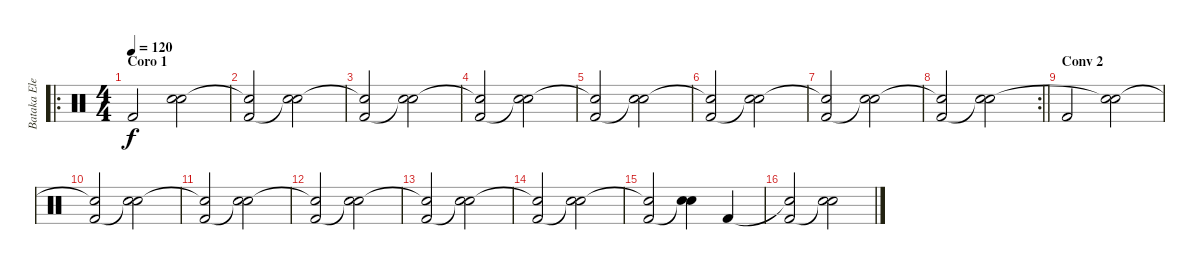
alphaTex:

\track ("Bataka Electrica" "Bataka Ele") {instrument percussion}
\staff {score}
\articulation defaults
\ro
\ts (4 4)
\section ("" "Coro 1")
\tempo 120
\clef neutral
\ks c "Kick (hit) 2".2{dy f}
("Snare (hit) 2" "Snare (hit)"{t}).2 |
("Snare (hit)"{t} "Kick (hit) 2").2 ("Snare (hit) 2" "Snare (hit)"{t}).2 |
("Snare (hit)"{t} "Kick (hit) 2").2 ("Snare (hit) 2" "Snare (hit)"{t}).2 |
("Snare (hit)"{t} "Kick (hit) 2").2 ("Snare (hit) 2" "Snare (hit)"{t}).2 |
("Snare (hit)"{t} "Kick (hit) 2").2 ("Snare (hit) 2" "Snare (hit)"{t}).2 |
("Snare (hit)"{t} "Kick (hit) 2").2 ("Snare (hit) 2" "Snare (hit)"{t}).2 |
("Snare (hit)"{t} "Kick (hit) 2").2 ("Snare (hit) 2" "Snare (hit)"{t}).2 |
\rc 2
\barLineRight lightlight
("Snare (hit)"{t} "Kick (hit) 2").2 ("Snare (hit) 2" "Snare (hit)"{t}).2 |
\section ("" "Conv 2")
"Kick (hit) 2".2 ("Snare (hit) 2" "Snare (hit)"{t}).2 |
("Snare (hit)"{t} "Kick (hit) 2").2 ("Snare (hit) 2" "Snare (hit)"{t}).2 |
("Snare (hit)"{t} "Kick (hit) 2").2 ("Snare (hit) 2" "Snare (hit)"{t}).2 |
("Snare (hit)"{t} "Kick (hit) 2").2 ("Snare (hit) 2" "Snare (hit)"{t}).2 |
("Snare (hit)"{t} "Kick (hit) 2").2 ("Snare (hit) 2" "Snare (hit)"{t}).2 |
("Snare (hit)"{t} "Kick (hit) 2").2 ("Snare (hit) 2" "Snare (hit)"{t}).2 |
("Snare (hit)"{t} "Kick (hit) 2").2 ("Snare (hit) 2" "Snare (hit)"{t}).4 "Kick (hit) 2".4 |
("Snare (hit)"{t} "Kick (hit) 2").2 ("Snare (hit) 2" "Snare (hit)"{t}).2
